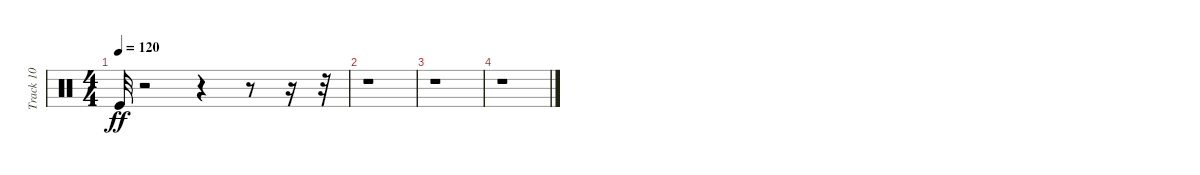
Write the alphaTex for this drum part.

\track ("Track 10" "Track 10") {instrument percussion}
\staff {score}
\articulation defaults
\ts (4 4)
\tempo 120
\clef neutral
\ks c "Kick (hit)".32{dy ff}
r.2 r.4 r.8 r.16 r.32 |
r.1 |
r.1 |
r.1
